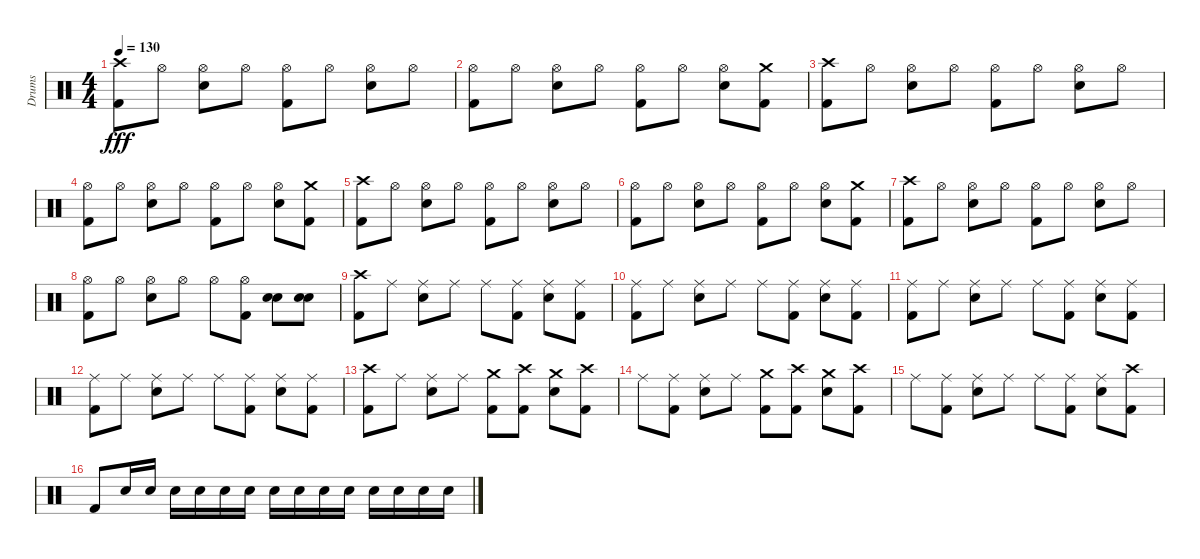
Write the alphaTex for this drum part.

\track ("Drums" "Drums") {instrument percussion}
\staff {score}
\articulation defaults
\ts (4 4)
\tempo 130
\clef neutral
\ks c
("Kick (hit) 2" "Crash high (hit)").8{dy fff} "Hi-Hat (open)".8 ("Electric Snare (hit)" "Hi-Hat (open)").8 "Hi-Hat (open)".8 ("Kick (hit) 2" "Hi-Hat (open)").8 "Hi-Hat (open)".8 ("Electric Snare (hit)" "Hi-Hat (open)").8 "Hi-Hat (open)".8 |
("Hi-Hat (open)" "Kick (hit) 2").8 "Hi-Hat (open)".8 ("Hi-Hat (open)" "Electric Snare (hit)").8 "Hi-Hat (open)".8 ("Hi-Hat (open)" "Kick (hit) 2").8 "Hi-Hat (open)".8 ("Hi-Hat (open)" "Electric Snare (hit)").8 ("Crash medium (hit)" "Kick (hit) 2").8 |
("Crash high (hit)" "Kick (hit) 2").8 "Hi-Hat (open)".8 ("Hi-Hat (open)" "Electric Snare (hit)").8 "Hi-Hat (open)".8 ("Hi-Hat (open)" "Kick (hit) 2").8 "Hi-Hat (open)".8 ("Hi-Hat (open)" "Electric Snare (hit)").8 "Hi-Hat (open)".8 |
("Hi-Hat (open)" "Kick (hit) 2").8 "Hi-Hat (open)".8 ("Hi-Hat (open)" "Electric Snare (hit)").8 "Hi-Hat (open)".8 ("Hi-Hat (open)" "Kick (hit) 2").8 "Hi-Hat (open)".8 ("Hi-Hat (open)" "Electric Snare (hit)").8 ("Crash medium (hit)" "Kick (hit) 2").8 |
("Kick (hit) 2" "Crash high (hit)").8 "Hi-Hat (open)".8 ("Electric Snare (hit)" "Hi-Hat (open)").8 "Hi-Hat (open)".8 ("Kick (hit) 2" "Hi-Hat (open)").8 "Hi-Hat (open)".8 ("Electric Snare (hit)" "Hi-Hat (open)").8 "Hi-Hat (open)".8 |
("Hi-Hat (open)" "Kick (hit) 2").8 "Hi-Hat (open)".8 ("Hi-Hat (open)" "Electric Snare (hit)").8 "Hi-Hat (open)".8 ("Hi-Hat (open)" "Kick (hit) 2").8 "Hi-Hat (open)".8 ("Hi-Hat (open)" "Electric Snare (hit)").8 ("Crash medium (hit)" "Kick (hit) 2").8 |
("Crash high (hit)" "Kick (hit) 2").8 "Hi-Hat (open)".8 ("Hi-Hat (open)" "Electric Snare (hit)").8 "Hi-Hat (open)".8 ("Hi-Hat (open)" "Kick (hit) 2").8 "Hi-Hat (open)".8 ("Hi-Hat (open)" "Electric Snare (hit)").8 "Hi-Hat (open)".8 |
("Hi-Hat (open)" "Kick (hit) 2").8 "Hi-Hat (open)".8 ("Hi-Hat (open)" "Electric Snare (hit)").8 "Hi-Hat (open)".8 "Hi-Hat (open)".8 ("Kick (hit) 2" "Hi-Hat (open)").8 ("Electric Snare (hit)" "Electric Snare (hit)").8 ("Electric Snare (hit)" "Electric Snare (hit)").8 |
("Crash high (hit)" "Kick (hit) 2").8 "Ride (middle)".8 ("Ride (middle)" "Electric Snare (hit)").8 "Ride (middle)".8 "Ride (middle)".8 ("Ride (middle)" "Kick (hit) 2").8 ("Ride (middle)" "Electric Snare (hit)").8 ("Ride (middle)" "Kick (hit) 2").8 |
("Ride (middle)" "Kick (hit) 2").8 "Ride (middle)".8 ("Ride (middle)" "Electric Snare (hit)").8 "Ride (middle)".8 "Ride (middle)".8 ("Ride (middle)" "Kick (hit) 2").8 ("Ride (middle)" "Electric Snare (hit)").8 ("Ride (middle)" "Kick (hit) 2").8 |
("Ride (middle)" "Kick (hit) 2").8 "Ride (middle)".8 ("Ride (middle)" "Electric Snare (hit)").8 "Ride (middle)".8 "Ride (middle)".8 ("Ride (middle)" "Kick (hit) 2").8 ("Ride (middle)" "Electric Snare (hit)").8 ("Ride (middle)" "Kick (hit) 2").8 |
("Kick (hit) 2" "Ride (middle)").8 "Ride (middle)".8 ("Electric Snare (hit)" "Ride (middle)").8 "Ride (middle)".8 "Ride (middle)".8 ("Ride (middle)" "Kick (hit) 2").8 ("Electric Snare (hit)" "Ride (middle)").8 ("Ride (middle)" "Kick (hit) 2").8 |
("Kick (hit) 2" "Crash high (hit)").8 "Ride (middle)".8 ("Electric Snare (hit)" "Ride (middle)").8 "Ride (middle)".8 ("Kick (hit) 2" "Crash medium (hit)").8 ("Kick (hit) 2" "Crash high (hit)").8 ("Electric Snare (hit)" "Crash medium (hit)").8 ("Kick (hit) 2" "Crash high (hit)").8 |
"Ride (middle)".8 ("Ride (middle)" "Kick (hit) 2").8 ("Electric Snare (hit)" "Ride (middle)").8 "Ride (middle)".8 ("Crash medium (hit)" "Kick (hit) 2").8 ("Crash high (hit)" "Kick (hit) 2").8 ("Crash medium (hit)" "Electric Snare (hit)").8 ("Crash high (hit)" "Kick (hit) 2").8 |
"Ride (middle)".8 ("Ride (middle)" "Kick (hit) 2").8 ("Ride (middle)" "Electric Snare (hit)").8 "Ride (middle)".8 "Ride (middle)".8 ("Ride (middle)" "Kick (hit) 2").8 ("Electric Snare (hit)" "Ride (middle)").8 ("Kick (hit) 2" "Crash high (hit)").8 |
"Kick (hit) 2".8 "Electric Snare (hit)".16 "Electric Snare (hit)".16 "Electric Snare (hit)".16 "Electric Snare (hit)".16 "Electric Snare (hit)".16 "Electric Snare (hit)".16 "Electric Snare (hit)".16 "Electric Snare (hit)".16 "Electric Snare (hit)".16 "Electric Snare (hit)".16 "Electric Snare (hit)".16 "Electric Snare (hit)".16 "Electric Snare (hit)".16 "Electric Snare (hit)".16
